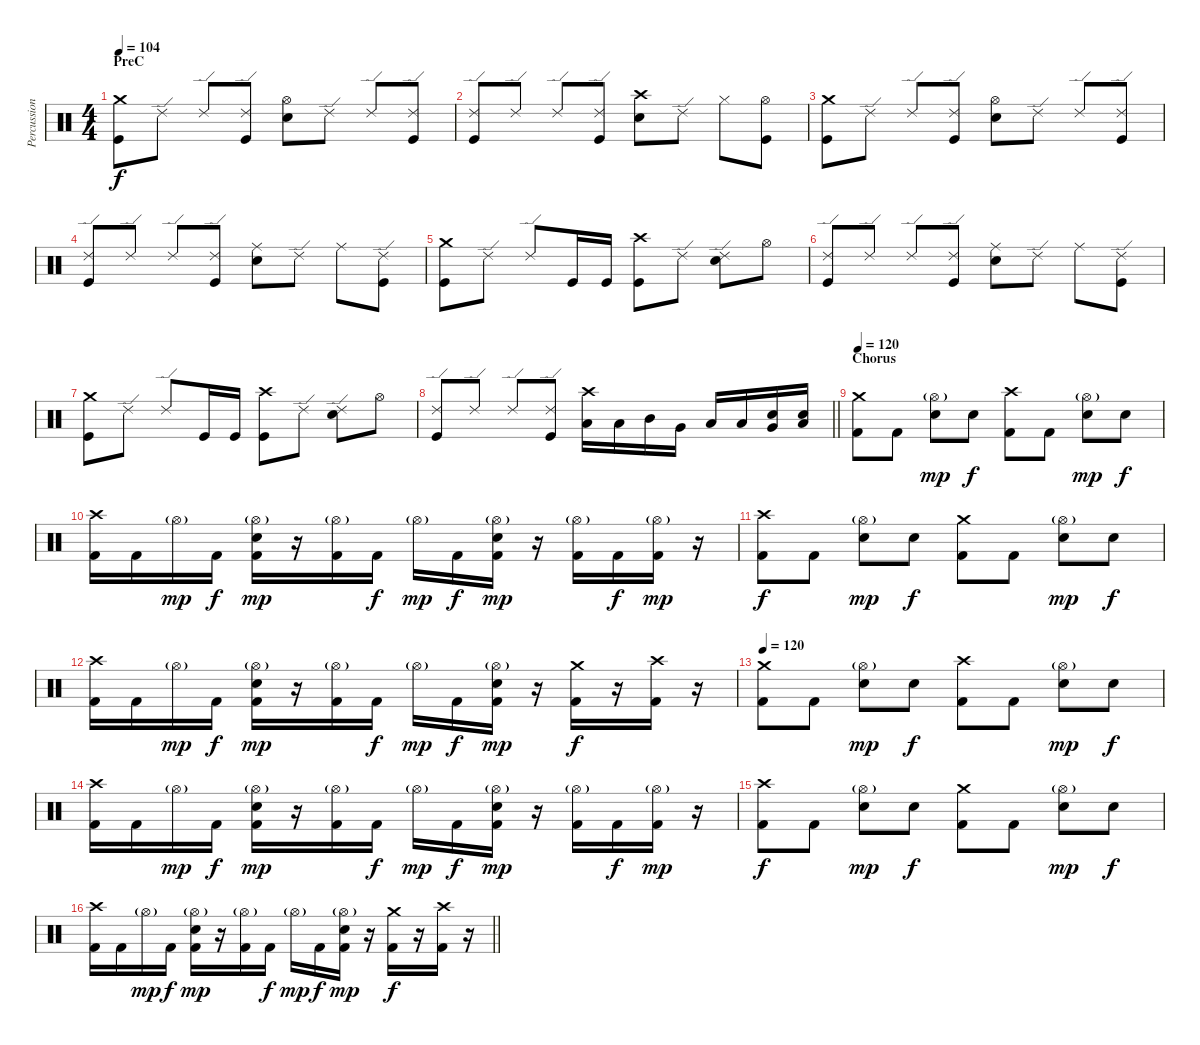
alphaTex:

\track ("Percussion" "Percussion") {instrument percussion}
\staff {score}
\articulation defaults
\ts (4 4)
\section ("" "PreC")
\tempo 104
\clef neutral
\ks c
("Crash medium (hit)" "Kick (hit)").8{dy f} "Ride (edge) 2".8 "Ride (edge) 2".8 ("Ride (edge) 2" "Kick (hit)").8 ("Hi-Hat (open)" "Snare (hit) 2").8 "Ride (edge) 2".8 "Ride (edge) 2".8 ("Ride (edge) 2" "Kick (hit)").8 |
("Ride (edge) 2" "Kick (hit)").8 "Ride (edge) 2".8 "Ride (edge) 2".8 ("Ride (edge) 2" "Kick (hit)").8 ("Crash high (hit)" "Snare (hit) 2").8 "Ride (edge) 2".8 "Hi-Hat (closed)".8 ("Hi-Hat (open)" "Kick (hit)").8 |
("Crash medium (hit)" "Kick (hit)").8 "Ride (edge) 2".8 "Ride (edge) 2".8 ("Ride (edge) 2" "Kick (hit)").8 ("Hi-Hat (open)" "Snare (hit) 2").8 "Ride (edge) 2".8 "Ride (edge) 2".8 ("Ride (edge) 2" "Kick (hit)").8 |
("Ride (edge) 2" "Kick (hit)").8 "Ride (edge) 2".8 "Ride (edge) 2".8 ("Ride (edge) 2" "Kick (hit)").8 ("Ride (middle)" "Snare (hit) 2").8 "Ride (edge) 2".8 "Ride (middle)".8 ("Ride (edge) 2" "Kick (hit)").8 |
("Crash medium (hit)" "Kick (hit)").8 "Ride (edge) 2".8 "Ride (edge) 2".8 "Kick (hit)".16 "Kick (hit)".16 ("Crash high (hit)" "Kick (hit)").8 "Ride (edge) 2".8 ("Ride (edge) 2" "Snare (hit) 2").8 "Hi-Hat (open)".8 |
("Ride (edge) 2" "Kick (hit)").8 "Ride (edge) 2".8 "Ride (edge) 2".8 ("Ride (edge) 2" "Kick (hit)").8 ("Ride (middle)" "Snare (hit) 2").8 "Ride (edge) 2".8 "Ride (middle)".8 ("Ride (edge) 2" "Kick (hit)").8 |
("Crash medium (hit)" "Kick (hit)").8 "Ride (edge) 2".8 "Ride (edge) 2".8 "Kick (hit)".16 "Kick (hit)".16 ("Crash high (hit)" "Kick (hit)").8 "Ride (edge) 2".8 ("Ride (edge) 2" "Snare (hit) 2").8 "Hi-Hat (open)".8 |
\barLineRight lightlight
("Ride (edge) 2" "Kick (hit)").8 "Ride (edge) 2".8 "Ride (edge) 2".8 ("Ride (edge) 2" "Kick (hit)").8 ("Crash high (hit)" "Low Tom (hit)").16 "Low Tom (hit)".16 "Mid Tom (hit)".16 "Very Low Tom (hit)".16 "Low Tom (hit)".16 "Low Tom (hit)".16 ("Snare (hit) 2" "Very Low Tom (hit)").16 ("Snare (hit) 2" "Low Floor Tom (hit)").16 |
\section ("" "Chorus")
\tempo 120
("Crash medium (hit)" "Kick (hit) 2").8{volume 16} "Kick (hit) 2".8 ("Hi-Hat (open)"{g} "Snare (hit) 2").8{dy mp} "Snare (hit) 2".8{dy f} ("Crash high (hit)" "Kick (hit) 2").8 "Kick (hit) 2".8 ("Hi-Hat (open)"{g} "Snare (hit) 2").8{dy mp} "Snare (hit) 2".8{dy f} |
("Crash high (hit)" "Kick (hit) 2").16 "Kick (hit) 2".16 "Hi-Hat (open)"{g}.16{dy mp} "Kick (hit) 2".16{dy f} ("Hi-Hat (open)"{g} "Snare (hit) 2" "Kick (hit) 2").16{dy mp} r.16 ("Hi-Hat (open)"{g} "Kick (hit) 2").16 "Kick (hit) 2".16{dy f} "Hi-Hat (open)"{g}.16{dy mp} "Kick (hit) 2".16{dy f} ("Hi-Hat (open)"{g} "Snare (hit) 2" "Kick (hit) 2").16{dy mp} r.16 ("Hi-Hat (open)"{g} "Kick (hit) 2").16 "Kick (hit) 2".16{dy f} ("Hi-Hat (open)"{g} "Kick (hit) 2").16{dy mp} r.16 |
("Crash high (hit)" "Kick (hit) 2").8{dy f} "Kick (hit) 2".8 ("Hi-Hat (open)"{g} "Snare (hit) 2").8{dy mp} "Snare (hit) 2".8{dy f} ("Crash medium (hit)" "Kick (hit) 2").8 "Kick (hit) 2".8 ("Hi-Hat (open)"{g} "Snare (hit) 2").8{dy mp} "Snare (hit) 2".8{dy f} |
("Crash high (hit)" "Kick (hit) 2").16 "Kick (hit) 2".16 "Hi-Hat (open)"{g}.16{dy mp} "Kick (hit) 2".16{dy f} ("Hi-Hat (open)"{g} "Snare (hit) 2" "Kick (hit) 2").16{dy mp} r.16 ("Hi-Hat (open)"{g} "Kick (hit) 2").16 "Kick (hit) 2".16{dy f} "Hi-Hat (open)"{g}.16{dy mp} "Kick (hit) 2".16{dy f} ("Hi-Hat (open)"{g} "Snare (hit) 2" "Kick (hit) 2").16{dy mp} r.16 ("Crash medium (hit)" "Kick (hit) 2").16{dy f} r.16 ("Crash high (hit)" "Kick (hit) 2").16 r.16 |
\tempo 120
("Crash medium (hit)" "Kick (hit) 2").8 "Kick (hit) 2".8 ("Hi-Hat (open)"{g} "Snare (hit) 2").8{dy mp} "Snare (hit) 2".8{dy f} ("Crash high (hit)" "Kick (hit) 2").8 "Kick (hit) 2".8 ("Hi-Hat (open)"{g} "Snare (hit) 2").8{dy mp} "Snare (hit) 2".8{dy f} |
("Crash high (hit)" "Kick (hit) 2").16 "Kick (hit) 2".16 "Hi-Hat (open)"{g}.16{dy mp} "Kick (hit) 2".16{dy f} ("Hi-Hat (open)"{g} "Snare (hit) 2" "Kick (hit) 2").16{dy mp} r.16 ("Hi-Hat (open)"{g} "Kick (hit) 2").16 "Kick (hit) 2".16{dy f} "Hi-Hat (open)"{g}.16{dy mp} "Kick (hit) 2".16{dy f} ("Hi-Hat (open)"{g} "Snare (hit) 2" "Kick (hit) 2").16{dy mp} r.16 ("Hi-Hat (open)"{g} "Kick (hit) 2").16 "Kick (hit) 2".16{dy f} ("Hi-Hat (open)"{g} "Kick (hit) 2").16{dy mp} r.16 |
("Crash high (hit)" "Kick (hit) 2").8{dy f} "Kick (hit) 2".8 ("Hi-Hat (open)"{g} "Snare (hit) 2").8{dy mp} "Snare (hit) 2".8{dy f} ("Crash medium (hit)" "Kick (hit) 2").8 "Kick (hit) 2".8 ("Hi-Hat (open)"{g} "Snare (hit) 2").8{dy mp} "Snare (hit) 2".8{dy f} |
\barLineRight lightlight
("Crash high (hit)" "Kick (hit) 2").16 "Kick (hit) 2".16 "Hi-Hat (open)"{g}.16{dy mp} "Kick (hit) 2".16{dy f} ("Hi-Hat (open)"{g} "Snare (hit) 2" "Kick (hit) 2").16{dy mp} r.16 ("Hi-Hat (open)"{g} "Kick (hit) 2").16 "Kick (hit) 2".16{dy f} "Hi-Hat (open)"{g}.16{dy mp} "Kick (hit) 2".16{dy f} ("Hi-Hat (open)"{g} "Snare (hit) 2" "Kick (hit) 2").16{dy mp} r.16 ("Crash medium (hit)" "Kick (hit) 2").16{dy f} r.16 ("Crash high (hit)" "Kick (hit) 2").16 r.16
